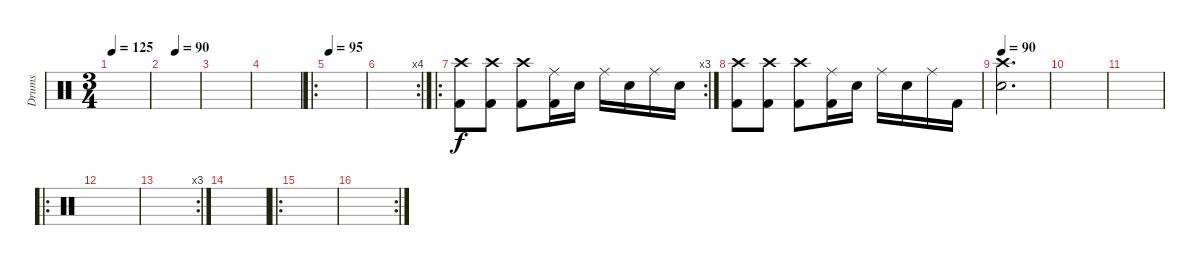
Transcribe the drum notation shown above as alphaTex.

\track ("Drums" "Drums") {instrument percussion}
\staff {score}
\articulation defaults
\ts (3 4)
\tempo 125
\clef neutral
\ks c
|
\tempo (90 0.3333333333333333)
|
|
|
\ro
\tempo 95
|
\rc 4
|
\ro
\rc 3
("Crash high (hit)" "Kick (hit) 2").8 ("Crash high (hit)" "Kick (hit) 2").8 ("Crash high (hit)" "Kick (hit) 2").8 ("Ride (middle)" "Kick (hit) 2").16 "Snare (hit) 2".16 "Ride (middle)".16 "Snare (hit) 2".16 "Ride (middle)".16 "Snare (hit) 2".16 |
("Crash high (hit)" "Kick (hit) 2").8 ("Crash high (hit)" "Kick (hit) 2").8 ("Crash high (hit)" "Kick (hit) 2").8 ("Ride (middle)" "Kick (hit) 2").16 "Snare (hit) 2".16 "Ride (middle)".16 "Snare (hit) 2".16 "Ride (middle)".16 "Kick (hit) 2".16 |
\tempo 90
("Crash high (hit)" "Snare (hit) 2").2{d} |
|
|
\ro
|
\rc 3
|
|
\ro
|
\rc 2
